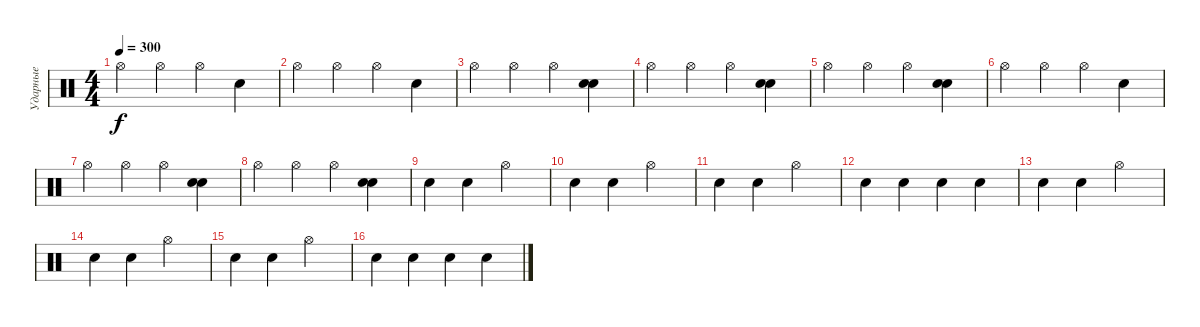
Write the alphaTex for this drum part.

\track ("Ударные" "Ударные") {instrument percussion}
\staff {score}
\articulation defaults
\ts (4 4)
\tempo 300
\clef neutral
\ks c "Hi-Hat (open)".4{dy f} "Hi-Hat (open)".4 "Hi-Hat (open)".4 "Electric Snare (hit)".4
|
"Hi-Hat (open)".4 "Hi-Hat (open)".4 "Hi-Hat (open)".4 "Electric Snare (hit)".4 |
"Hi-Hat (open)".4 "Hi-Hat (open)".4 "Hi-Hat (open)".4 ("Electric Snare (hit)" "Electric Snare (hit)").4 |
"Hi-Hat (open)".4 "Hi-Hat (open)".4 "Hi-Hat (open)".4 ("Electric Snare (hit)" "Electric Snare (hit)").4 |
"Hi-Hat (open)".4 "Hi-Hat (open)".4 "Hi-Hat (open)".4 ("Electric Snare (hit)" "Electric Snare (hit)").4 |
"Hi-Hat (open)".4 "Hi-Hat (open)".4 "Hi-Hat (open)".4 "Electric Snare (hit)".4 |
"Hi-Hat (open)".4 "Hi-Hat (open)".4 "Hi-Hat (open)".4 ("Electric Snare (hit)" "Electric Snare (hit)").4 |
"Hi-Hat (open)".4 "Hi-Hat (open)".4 "Hi-Hat (open)".4 ("Electric Snare (hit)" "Electric Snare (hit)").4 |
"Electric Snare (hit)".4 "Electric Snare (hit)".4 "Hi-Hat (open)".2 |
"Electric Snare (hit)".4 "Electric Snare (hit)".4 "Hi-Hat (open)".2 |
"Electric Snare (hit)".4 "Electric Snare (hit)".4 "Hi-Hat (open)".2 |
"Electric Snare (hit)".4 "Electric Snare (hit)".4 "Electric Snare (hit)".4 "Electric Snare (hit)".4 |
"Electric Snare (hit)".4 "Electric Snare (hit)".4 "Hi-Hat (open)".2 |
"Electric Snare (hit)".4 "Electric Snare (hit)".4 "Hi-Hat (open)".2 |
"Electric Snare (hit)".4 "Electric Snare (hit)".4 "Hi-Hat (open)".2 |
"Electric Snare (hit)".4 "Electric Snare (hit)".4 "Electric Snare (hit)".4 "Electric Snare (hit)".4
